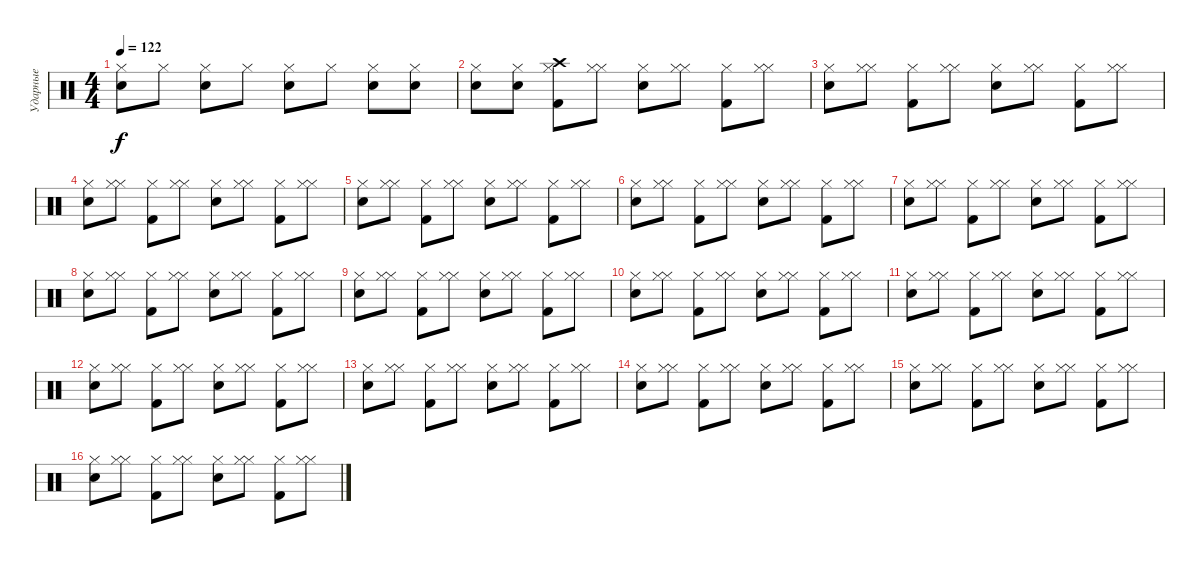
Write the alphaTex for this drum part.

\track ("Ударные" "Ударные") {instrument percussion}
\staff {score}
\articulation defaults
\ts (4 4)
\tempo 122
\clef neutral
\ks c
("Hi-Hat (closed)" "Snare (hit) 2").8{dy f} "Hi-Hat (closed)".8 ("Hi-Hat (closed)" "Snare (hit) 2").8 "Hi-Hat (closed)".8 ("Hi-Hat (closed)" "Snare (hit) 2").8 "Hi-Hat (closed)".8 ("Hi-Hat (closed)" "Snare (hit) 2").8 ("Hi-Hat (closed)" "Snare (hit) 2").8 |
("Hi-Hat (closed)" "Snare (hit) 2").8 ("Hi-Hat (closed)" "Snare (hit) 2").8 ("Crash high (hit)" "Hi-Hat (closed)" "Kick (hit) 2").8 ("Hi-Hat (closed)" "Hi-Hat (closed)").8 ("Hi-Hat (closed)" "Snare (hit) 2").8 ("Hi-Hat (closed)" "Hi-Hat (closed)").8 ("Hi-Hat (closed)" "Kick (hit) 2").8 ("Hi-Hat (closed)" "Hi-Hat (closed)").8 |
("Hi-Hat (closed)" "Snare (hit) 2").8 ("Hi-Hat (closed)" "Hi-Hat (closed)").8 ("Hi-Hat (closed)" "Kick (hit) 2").8 ("Hi-Hat (closed)" "Hi-Hat (closed)").8 ("Hi-Hat (closed)" "Snare (hit) 2").8 ("Hi-Hat (closed)" "Hi-Hat (closed)").8 ("Hi-Hat (closed)" "Kick (hit) 2").8 ("Hi-Hat (closed)" "Hi-Hat (closed)").8 |
("Hi-Hat (closed)" "Snare (hit) 2").8 ("Hi-Hat (closed)" "Hi-Hat (closed)").8 ("Hi-Hat (closed)" "Kick (hit) 2").8 ("Hi-Hat (closed)" "Hi-Hat (closed)").8 ("Hi-Hat (closed)" "Snare (hit) 2").8 ("Hi-Hat (closed)" "Hi-Hat (closed)").8 ("Hi-Hat (closed)" "Kick (hit) 2").8 ("Hi-Hat (closed)" "Hi-Hat (closed)").8 |
("Hi-Hat (closed)" "Snare (hit) 2").8 ("Hi-Hat (closed)" "Hi-Hat (closed)").8 ("Hi-Hat (closed)" "Kick (hit) 2").8 ("Hi-Hat (closed)" "Hi-Hat (closed)").8 ("Hi-Hat (closed)" "Snare (hit) 2").8 ("Hi-Hat (closed)" "Hi-Hat (closed)").8 ("Hi-Hat (closed)" "Kick (hit) 2").8 ("Hi-Hat (closed)" "Hi-Hat (closed)").8 |
("Hi-Hat (closed)" "Snare (hit) 2").8 ("Hi-Hat (closed)" "Hi-Hat (closed)").8 ("Hi-Hat (closed)" "Kick (hit) 2").8 ("Hi-Hat (closed)" "Hi-Hat (closed)").8 ("Hi-Hat (closed)" "Snare (hit) 2").8 ("Hi-Hat (closed)" "Hi-Hat (closed)").8 ("Hi-Hat (closed)" "Kick (hit) 2").8 ("Hi-Hat (closed)" "Hi-Hat (closed)").8 |
("Hi-Hat (closed)" "Snare (hit) 2").8 ("Hi-Hat (closed)" "Hi-Hat (closed)").8 ("Hi-Hat (closed)" "Kick (hit) 2").8 ("Hi-Hat (closed)" "Hi-Hat (closed)").8 ("Hi-Hat (closed)" "Snare (hit) 2").8 ("Hi-Hat (closed)" "Hi-Hat (closed)").8 ("Hi-Hat (closed)" "Kick (hit) 2").8 ("Hi-Hat (closed)" "Hi-Hat (closed)").8 |
("Hi-Hat (closed)" "Snare (hit) 2").8 ("Hi-Hat (closed)" "Hi-Hat (closed)").8 ("Hi-Hat (closed)" "Kick (hit) 2").8 ("Hi-Hat (closed)" "Hi-Hat (closed)").8 ("Hi-Hat (closed)" "Snare (hit) 2").8 ("Hi-Hat (closed)" "Hi-Hat (closed)").8 ("Hi-Hat (closed)" "Kick (hit) 2").8 ("Hi-Hat (closed)" "Hi-Hat (closed)").8 |
("Hi-Hat (closed)" "Snare (hit) 2").8 ("Hi-Hat (closed)" "Hi-Hat (closed)").8 ("Hi-Hat (closed)" "Kick (hit) 2").8 ("Hi-Hat (closed)" "Hi-Hat (closed)").8 ("Hi-Hat (closed)" "Snare (hit) 2").8 ("Hi-Hat (closed)" "Hi-Hat (closed)").8 ("Hi-Hat (closed)" "Kick (hit) 2").8 ("Hi-Hat (closed)" "Hi-Hat (closed)").8 |
("Hi-Hat (closed)" "Snare (hit) 2").8 ("Hi-Hat (closed)" "Hi-Hat (closed)").8 ("Hi-Hat (closed)" "Kick (hit) 2").8 ("Hi-Hat (closed)" "Hi-Hat (closed)").8 ("Hi-Hat (closed)" "Snare (hit) 2").8 ("Hi-Hat (closed)" "Hi-Hat (closed)").8 ("Hi-Hat (closed)" "Kick (hit) 2").8 ("Hi-Hat (closed)" "Hi-Hat (closed)").8 |
("Hi-Hat (closed)" "Snare (hit) 2").8 ("Hi-Hat (closed)" "Hi-Hat (closed)").8 ("Hi-Hat (closed)" "Kick (hit) 2").8 ("Hi-Hat (closed)" "Hi-Hat (closed)").8 ("Hi-Hat (closed)" "Snare (hit) 2").8 ("Hi-Hat (closed)" "Hi-Hat (closed)").8 ("Hi-Hat (closed)" "Kick (hit) 2").8 ("Hi-Hat (closed)" "Hi-Hat (closed)").8 |
("Hi-Hat (closed)" "Snare (hit) 2").8 ("Hi-Hat (closed)" "Hi-Hat (closed)").8 ("Hi-Hat (closed)" "Kick (hit) 2").8 ("Hi-Hat (closed)" "Hi-Hat (closed)").8 ("Hi-Hat (closed)" "Snare (hit) 2").8 ("Hi-Hat (closed)" "Hi-Hat (closed)").8 ("Hi-Hat (closed)" "Kick (hit) 2").8 ("Hi-Hat (closed)" "Hi-Hat (closed)").8 |
("Hi-Hat (closed)" "Snare (hit) 2").8 ("Hi-Hat (closed)" "Hi-Hat (closed)").8 ("Hi-Hat (closed)" "Kick (hit) 2").8 ("Hi-Hat (closed)" "Hi-Hat (closed)").8 ("Hi-Hat (closed)" "Snare (hit) 2").8 ("Hi-Hat (closed)" "Hi-Hat (closed)").8 ("Hi-Hat (closed)" "Kick (hit) 2").8 ("Hi-Hat (closed)" "Hi-Hat (closed)").8 |
("Hi-Hat (closed)" "Snare (hit) 2").8 ("Hi-Hat (closed)" "Hi-Hat (closed)").8 ("Hi-Hat (closed)" "Kick (hit) 2").8 ("Hi-Hat (closed)" "Hi-Hat (closed)").8 ("Hi-Hat (closed)" "Snare (hit) 2").8 ("Hi-Hat (closed)" "Hi-Hat (closed)").8 ("Hi-Hat (closed)" "Kick (hit) 2").8 ("Hi-Hat (closed)" "Hi-Hat (closed)").8 |
("Hi-Hat (closed)" "Snare (hit) 2").8 ("Hi-Hat (closed)" "Hi-Hat (closed)").8 ("Hi-Hat (closed)" "Kick (hit) 2").8 ("Hi-Hat (closed)" "Hi-Hat (closed)").8 ("Hi-Hat (closed)" "Snare (hit) 2").8 ("Hi-Hat (closed)" "Hi-Hat (closed)").8 ("Hi-Hat (closed)" "Kick (hit) 2").8 ("Hi-Hat (closed)" "Hi-Hat (closed)").8 |
("Hi-Hat (closed)" "Snare (hit) 2").8 ("Hi-Hat (closed)" "Hi-Hat (closed)").8 ("Hi-Hat (closed)" "Kick (hit) 2").8 ("Hi-Hat (closed)" "Hi-Hat (closed)").8 ("Hi-Hat (closed)" "Snare (hit) 2").8 ("Hi-Hat (closed)" "Hi-Hat (closed)").8 ("Hi-Hat (closed)" "Kick (hit) 2").8 ("Hi-Hat (closed)" "Hi-Hat (closed)").8
